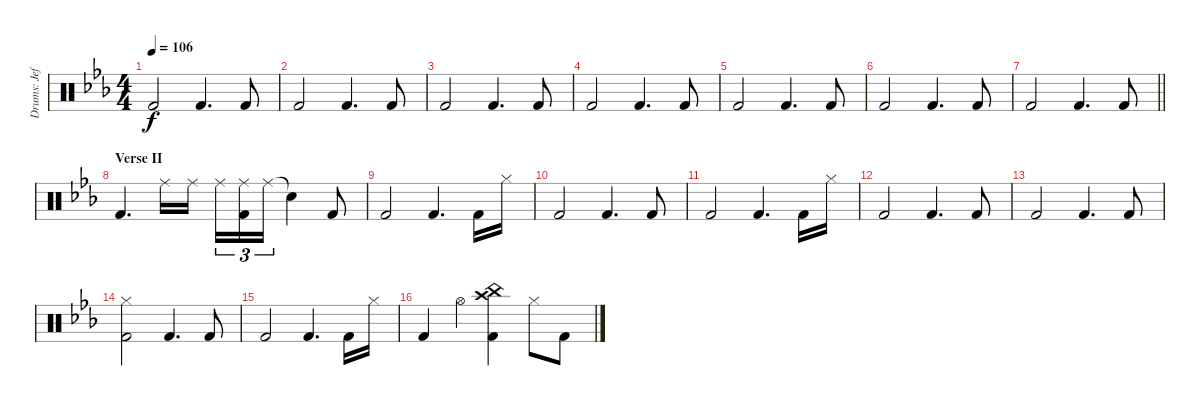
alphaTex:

\track ("Drums: Jeff" "Drums: Jef") {instrument percussion}
\staff {score}
\articulation defaults
\ts (4 4)
\tempo 106
\clef neutral
\ks eb "Kick (hit) 2".2{dy f} "Kick (hit) 2".4{d} "Kick (hit) 2".8
|
"Kick (hit) 2".2 "Kick (hit) 2".4{d} "Kick (hit) 2".8 |
"Kick (hit) 2".2 "Kick (hit) 2".4{d} "Kick (hit) 2".8 |
"Kick (hit) 2".2 "Kick (hit) 2".4{d} "Kick (hit) 2".8 |
"Kick (hit) 2".2 "Kick (hit) 2".4{d} "Kick (hit) 2".8 |
"Kick (hit) 2".2 "Kick (hit) 2".4{d} "Kick (hit) 2".8 |
\barLineRight lightlight "Kick (hit) 2".2 "Kick (hit) 2".4{d} "Kick (hit) 2".8
|
\section ("" "Verse II")
"Kick (hit) 2".4{d} "Ride (middle)".16 "Ride (middle)".16 "Ride (middle)".16{tu (3 2)} ("Ride (middle)" "Kick (hit) 2").16{tu (3 2)} "Ride (middle)".16{tu (3 2)} "Snare (hit)"{t}.4 "Kick (hit) 2".8 |
"Kick (hit) 2".2 "Kick (hit) 2".4{d} "Kick (hit) 2".16 "Hi-Hat (closed)".16 |
"Kick (hit) 2".2 "Kick (hit) 2".4{d} "Kick (hit) 2".8 |
"Kick (hit) 2".2 "Kick (hit) 2".4{d} "Kick (hit) 2".16 "Hi-Hat (closed)".16 |
"Kick (hit) 2".2 "Kick (hit) 2".4{d} "Kick (hit) 2".8 |
"Kick (hit) 2".2 "Kick (hit) 2".4{d} "Kick (hit) 2".8 |
("Hi-Hat (closed)" "Kick (hit) 2").2 "Kick (hit) 2".4{d} "Kick (hit) 2".8 |
"Kick (hit) 2".2 "Kick (hit) 2".4{d} "Kick (hit) 2".16 "Hi-Hat (closed)".16 |
"Kick (hit) 2".4 "Hi-Hat (open)".4 ("Crash high (hit)" "China (hit)" "Kick (hit) 2").4 "Hi-Hat (closed)".8 "Kick (hit) 2".8
